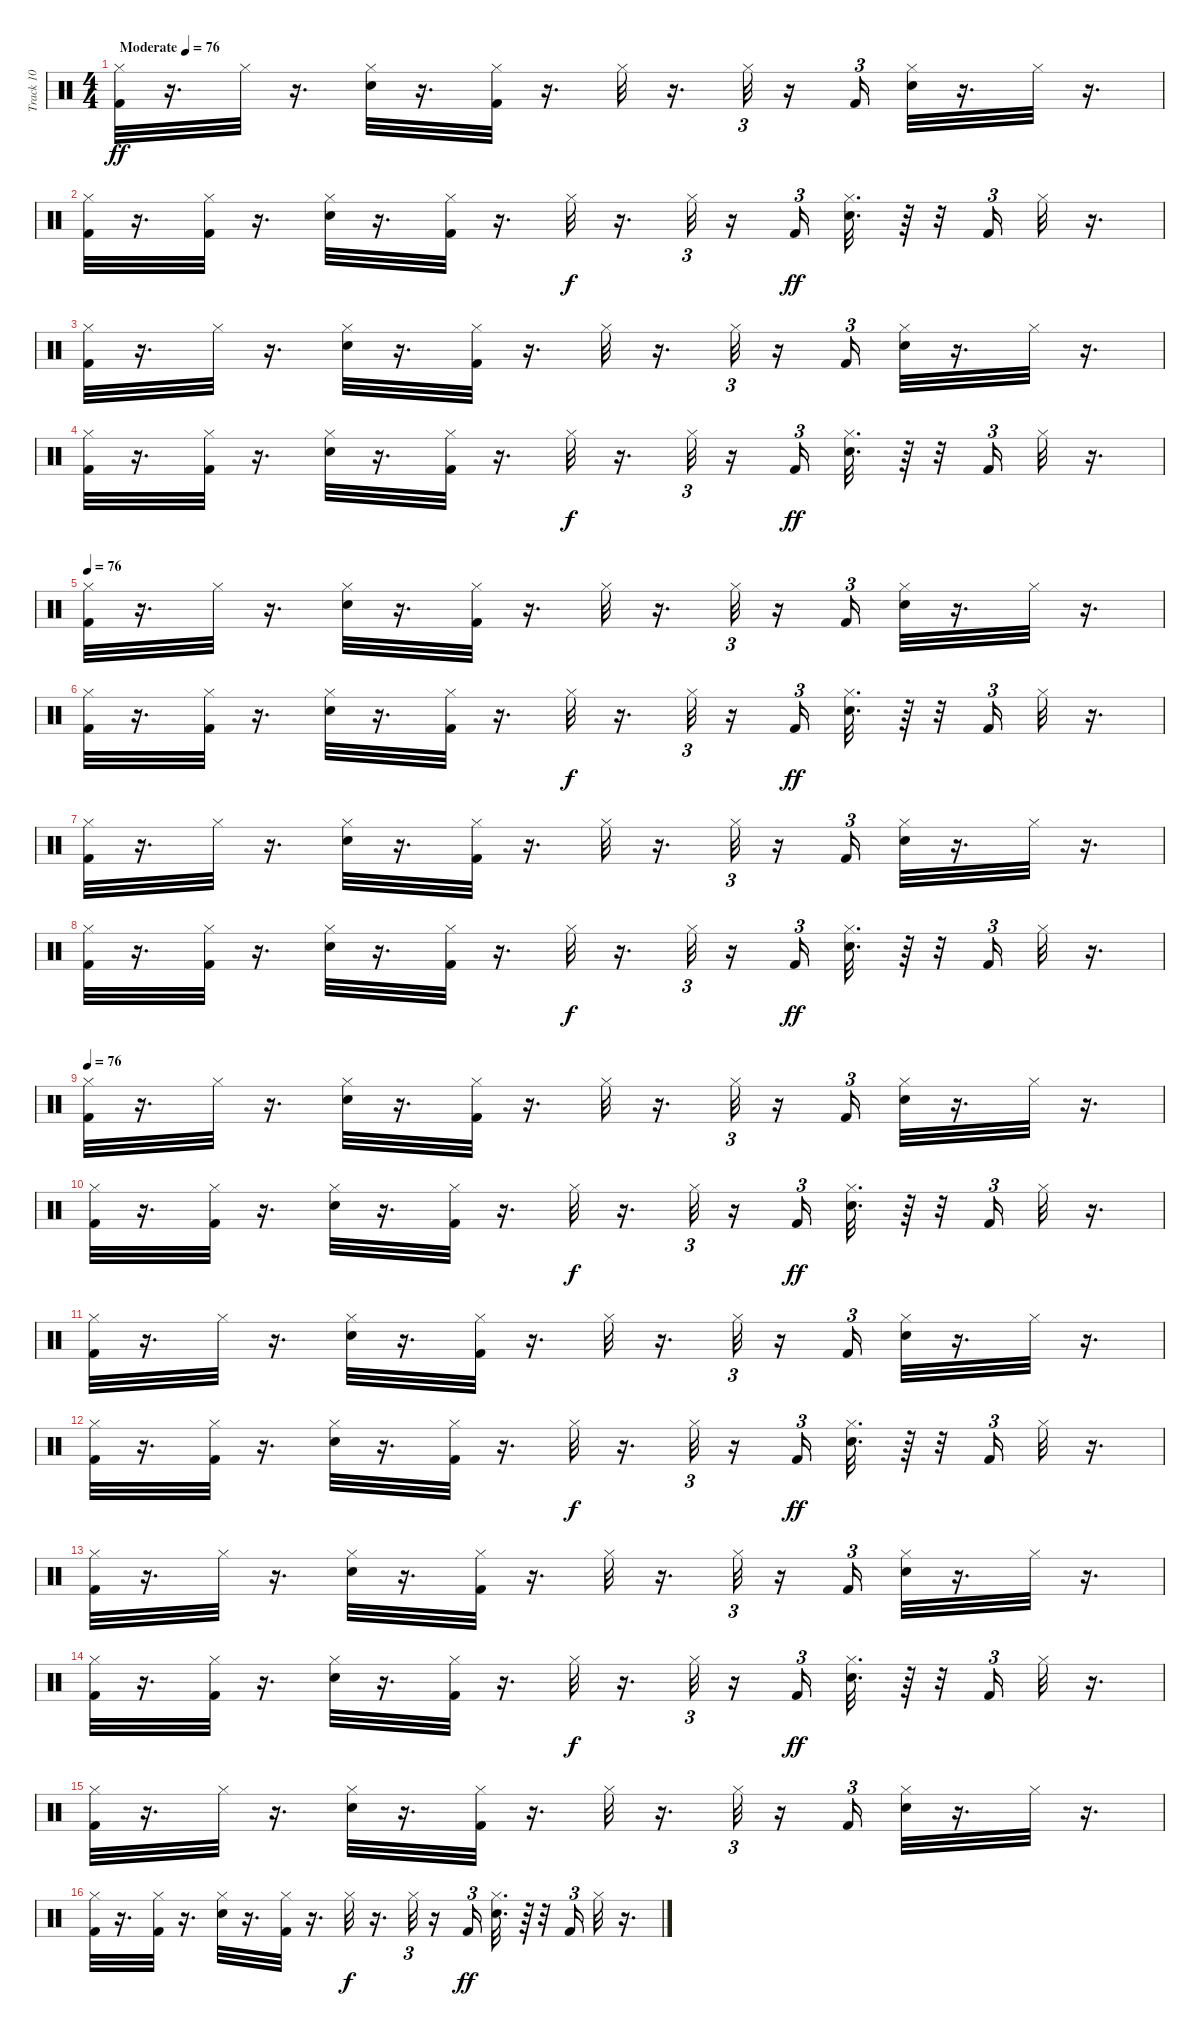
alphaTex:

\track ("Track 10" "Track 10") {instrument percussion}
\staff {score}
\articulation defaults
\ts (4 4)
\tempo (76 "Moderate")
\clef neutral
\ks c
("Hi-Hat (closed)" "Kick (hit) 2").32{dy ff} r.16{d} "Hi-Hat (closed)".32 r.16{d} ("Hi-Hat (closed)" "Electric Snare (hit)").32 r.16{d} ("Hi-Hat (closed)" "Kick (hit) 2").32 r.16{d} "Hi-Hat (closed)".32 r.16{d} "Hi-Hat (closed)".32{tu (3 2)} r.16 "Kick (hit) 2".16{tu (3 2)} ("Hi-Hat (closed)" "Electric Snare (hit)").32 r.16{d} "Hi-Hat (closed)".32 r.16{d} |
("Hi-Hat (closed)" "Kick (hit) 2").32 r.16{d} ("Hi-Hat (closed)" "Kick (hit) 2").32 r.16{d} ("Hi-Hat (closed)" "Electric Snare (hit)").32 r.16{d} ("Hi-Hat (closed)" "Kick (hit) 2").32 r.16{d} "Hi-Hat (closed)".32{dy f} r.16{d} "Hi-Hat (closed)".32{tu (3 2)} r.16 "Kick (hit) 2".16{tu (3 2) dy ff} ("Hi-Hat (closed)" "Electric Snare (hit)").32{d} r.64 r.32 "Kick (hit) 2".16{tu (3 2)} "Hi-Hat (closed)".32 r.16{d} |
("Hi-Hat (closed)" "Kick (hit) 2").32 r.16{d} "Hi-Hat (closed)".32 r.16{d} ("Hi-Hat (closed)" "Electric Snare (hit)").32 r.16{d} ("Hi-Hat (closed)" "Kick (hit) 2").32 r.16{d} "Hi-Hat (closed)".32 r.16{d} "Hi-Hat (closed)".32{tu (3 2)} r.16 "Kick (hit) 2".16{tu (3 2)} ("Hi-Hat (closed)" "Electric Snare (hit)").32 r.16{d} "Hi-Hat (closed)".32 r.16{d} |
("Hi-Hat (closed)" "Kick (hit) 2").32 r.16{d} ("Hi-Hat (closed)" "Kick (hit) 2").32 r.16{d} ("Hi-Hat (closed)" "Electric Snare (hit)").32 r.16{d} ("Hi-Hat (closed)" "Kick (hit) 2").32 r.16{d} "Hi-Hat (closed)".32{dy f} r.16{d} "Hi-Hat (closed)".32{tu (3 2)} r.16 "Kick (hit) 2".16{tu (3 2) dy ff} ("Hi-Hat (closed)" "Electric Snare (hit)").32{d} r.64 r.32 "Kick (hit) 2".16{tu (3 2)} "Hi-Hat (closed)".32 r.16{d} |
\tempo 76
("Hi-Hat (closed)" "Kick (hit) 2").32 r.16{d} "Hi-Hat (closed)".32 r.16{d} ("Hi-Hat (closed)" "Electric Snare (hit)").32 r.16{d} ("Hi-Hat (closed)" "Kick (hit) 2").32 r.16{d} "Hi-Hat (closed)".32 r.16{d} "Hi-Hat (closed)".32{tu (3 2)} r.16 "Kick (hit) 2".16{tu (3 2)} ("Hi-Hat (closed)" "Electric Snare (hit)").32 r.16{d} "Hi-Hat (closed)".32 r.16{d} |
("Hi-Hat (closed)" "Kick (hit) 2").32 r.16{d} ("Hi-Hat (closed)" "Kick (hit) 2").32 r.16{d} ("Hi-Hat (closed)" "Electric Snare (hit)").32 r.16{d} ("Hi-Hat (closed)" "Kick (hit) 2").32 r.16{d} "Hi-Hat (closed)".32{dy f} r.16{d} "Hi-Hat (closed)".32{tu (3 2)} r.16 "Kick (hit) 2".16{tu (3 2) dy ff} ("Hi-Hat (closed)" "Electric Snare (hit)").32{d} r.64 r.32 "Kick (hit) 2".16{tu (3 2)} "Hi-Hat (closed)".32 r.16{d} |
("Hi-Hat (closed)" "Kick (hit) 2").32 r.16{d} "Hi-Hat (closed)".32 r.16{d} ("Hi-Hat (closed)" "Electric Snare (hit)").32 r.16{d} ("Hi-Hat (closed)" "Kick (hit) 2").32 r.16{d} "Hi-Hat (closed)".32 r.16{d} "Hi-Hat (closed)".32{tu (3 2)} r.16 "Kick (hit) 2".16{tu (3 2)} ("Hi-Hat (closed)" "Electric Snare (hit)").32 r.16{d} "Hi-Hat (closed)".32 r.16{d} |
("Hi-Hat (closed)" "Kick (hit) 2").32 r.16{d} ("Hi-Hat (closed)" "Kick (hit) 2").32 r.16{d} ("Hi-Hat (closed)" "Electric Snare (hit)").32 r.16{d} ("Hi-Hat (closed)" "Kick (hit) 2").32 r.16{d} "Hi-Hat (closed)".32{dy f} r.16{d} "Hi-Hat (closed)".32{tu (3 2)} r.16 "Kick (hit) 2".16{tu (3 2) dy ff} ("Hi-Hat (closed)" "Electric Snare (hit)").32{d} r.64 r.32 "Kick (hit) 2".16{tu (3 2)} "Hi-Hat (closed)".32 r.16{d} |
\tempo 76
("Hi-Hat (closed)" "Kick (hit) 2").32 r.16{d} "Hi-Hat (closed)".32 r.16{d} ("Hi-Hat (closed)" "Electric Snare (hit)").32 r.16{d} ("Hi-Hat (closed)" "Kick (hit) 2").32 r.16{d} "Hi-Hat (closed)".32 r.16{d} "Hi-Hat (closed)".32{tu (3 2)} r.16 "Kick (hit) 2".16{tu (3 2)} ("Hi-Hat (closed)" "Electric Snare (hit)").32 r.16{d} "Hi-Hat (closed)".32 r.16{d} |
("Hi-Hat (closed)" "Kick (hit) 2").32 r.16{d} ("Hi-Hat (closed)" "Kick (hit) 2").32 r.16{d} ("Hi-Hat (closed)" "Electric Snare (hit)").32 r.16{d} ("Hi-Hat (closed)" "Kick (hit) 2").32 r.16{d} "Hi-Hat (closed)".32{dy f} r.16{d} "Hi-Hat (closed)".32{tu (3 2)} r.16 "Kick (hit) 2".16{tu (3 2) dy ff} ("Hi-Hat (closed)" "Electric Snare (hit)").32{d} r.64 r.32 "Kick (hit) 2".16{tu (3 2)} "Hi-Hat (closed)".32 r.16{d} |
("Hi-Hat (closed)" "Kick (hit) 2").32 r.16{d} "Hi-Hat (closed)".32 r.16{d} ("Hi-Hat (closed)" "Electric Snare (hit)").32 r.16{d} ("Hi-Hat (closed)" "Kick (hit) 2").32 r.16{d} "Hi-Hat (closed)".32 r.16{d} "Hi-Hat (closed)".32{tu (3 2)} r.16 "Kick (hit) 2".16{tu (3 2)} ("Hi-Hat (closed)" "Electric Snare (hit)").32 r.16{d} "Hi-Hat (closed)".32 r.16{d} |
("Hi-Hat (closed)" "Kick (hit) 2").32 r.16{d} ("Hi-Hat (closed)" "Kick (hit) 2").32 r.16{d} ("Hi-Hat (closed)" "Electric Snare (hit)").32 r.16{d} ("Hi-Hat (closed)" "Kick (hit) 2").32 r.16{d} "Hi-Hat (closed)".32{dy f} r.16{d} "Hi-Hat (closed)".32{tu (3 2)} r.16 "Kick (hit) 2".16{tu (3 2) dy ff} ("Hi-Hat (closed)" "Electric Snare (hit)").32{d} r.64 r.32 "Kick (hit) 2".16{tu (3 2)} "Hi-Hat (closed)".32 r.16{d} |
("Hi-Hat (closed)" "Kick (hit) 2").32 r.16{d} "Hi-Hat (closed)".32 r.16{d} ("Hi-Hat (closed)" "Electric Snare (hit)").32 r.16{d} ("Hi-Hat (closed)" "Kick (hit) 2").32 r.16{d} "Hi-Hat (closed)".32 r.16{d} "Hi-Hat (closed)".32{tu (3 2)} r.16 "Kick (hit) 2".16{tu (3 2)} ("Hi-Hat (closed)" "Electric Snare (hit)").32 r.16{d} "Hi-Hat (closed)".32 r.16{d} |
("Hi-Hat (closed)" "Kick (hit) 2").32 r.16{d} ("Hi-Hat (closed)" "Kick (hit) 2").32 r.16{d} ("Hi-Hat (closed)" "Electric Snare (hit)").32 r.16{d} ("Hi-Hat (closed)" "Kick (hit) 2").32 r.16{d} "Hi-Hat (closed)".32{dy f} r.16{d} "Hi-Hat (closed)".32{tu (3 2)} r.16 "Kick (hit) 2".16{tu (3 2) dy ff} ("Hi-Hat (closed)" "Electric Snare (hit)").32{d} r.64 r.32 "Kick (hit) 2".16{tu (3 2)} "Hi-Hat (closed)".32 r.16{d} |
("Hi-Hat (closed)" "Kick (hit) 2").32 r.16{d} "Hi-Hat (closed)".32 r.16{d} ("Hi-Hat (closed)" "Electric Snare (hit)").32 r.16{d} ("Hi-Hat (closed)" "Kick (hit) 2").32 r.16{d} "Hi-Hat (closed)".32 r.16{d} "Hi-Hat (closed)".32{tu (3 2)} r.16 "Kick (hit) 2".16{tu (3 2)} ("Hi-Hat (closed)" "Electric Snare (hit)").32 r.16{d} "Hi-Hat (closed)".32 r.16{d} |
("Hi-Hat (closed)" "Kick (hit) 2").32 r.16{d} ("Hi-Hat (closed)" "Kick (hit) 2").32 r.16{d} ("Hi-Hat (closed)" "Electric Snare (hit)").32 r.16{d} ("Hi-Hat (closed)" "Kick (hit) 2").32 r.16{d} "Hi-Hat (closed)".32{dy f} r.16{d} "Hi-Hat (closed)".32{tu (3 2)} r.16 "Kick (hit) 2".16{tu (3 2) dy ff} ("Hi-Hat (closed)" "Electric Snare (hit)").32{d} r.64 r.32 "Kick (hit) 2".16{tu (3 2)} "Hi-Hat (closed)".32 r.16{d}
